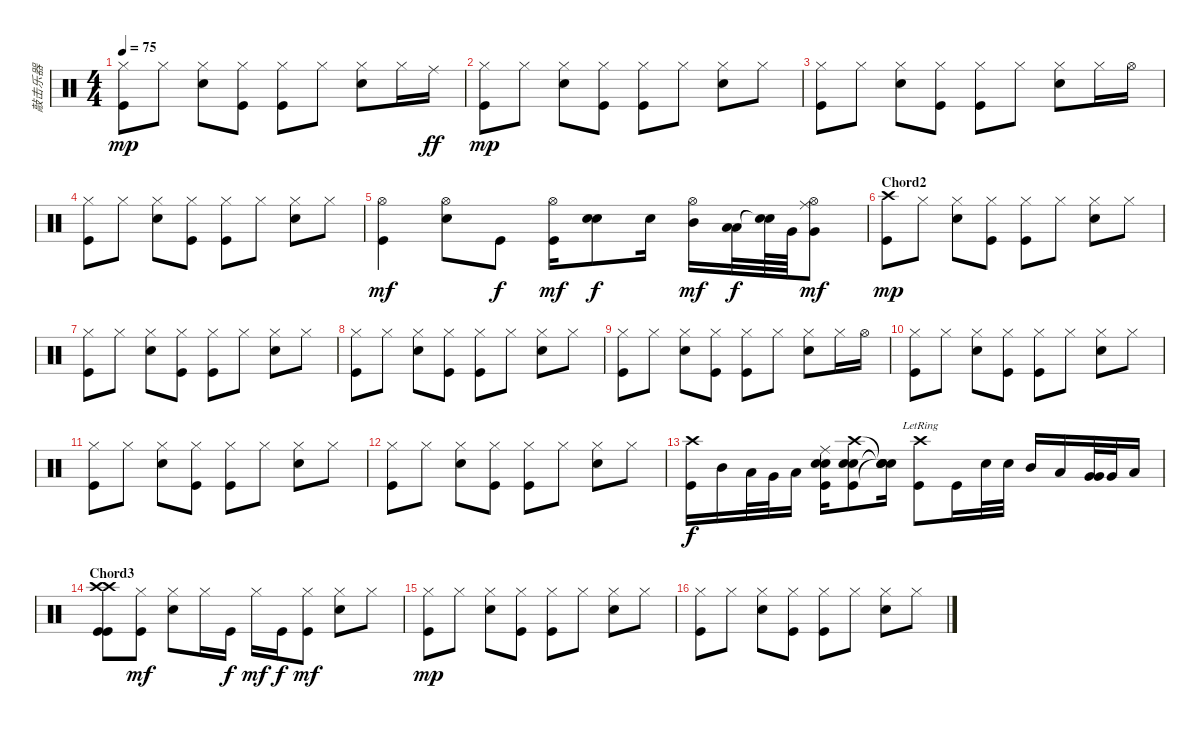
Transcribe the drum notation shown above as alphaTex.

\track ("敲击乐器" "敲击乐器") {instrument percussion}
\staff {score}
\articulation defaults
\ts (4 4)
\tempo 75
\clef neutral
\ks c
("Kick (hit)" "Hi-Hat (closed)").8{dy mp} "Hi-Hat (closed)".8 ("Electric Snare (hit)" "Hi-Hat (closed)").8 ("Kick (hit)" "Hi-Hat (closed)").8 ("Kick (hit)" "Hi-Hat (closed)").8 "Hi-Hat (closed)".8 ("Electric Snare (hit)" "Hi-Hat (closed)").8 "Hi-Hat (closed)".16 "Ride (middle)".16{dy ff} |
("Kick (hit)" "Hi-Hat (closed)").8{dy mp} "Hi-Hat (closed)".8 ("Electric Snare (hit)" "Hi-Hat (closed)").8 ("Kick (hit)" "Hi-Hat (closed)").8 ("Kick (hit)" "Hi-Hat (closed)").8 "Hi-Hat (closed)".8 ("Electric Snare (hit)" "Hi-Hat (closed)").8 "Hi-Hat (closed)".8 |
("Kick (hit)" "Hi-Hat (closed)").8 "Hi-Hat (closed)".8 ("Electric Snare (hit)" "Hi-Hat (closed)").8 ("Kick (hit)" "Hi-Hat (closed)").8 ("Kick (hit)" "Hi-Hat (closed)").8 "Hi-Hat (closed)".8 ("Electric Snare (hit)" "Hi-Hat (closed)").8 "Hi-Hat (closed)".16 "Hi-Hat (open)".16 |
("Kick (hit)" "Hi-Hat (closed)").8 "Hi-Hat (closed)".8 ("Electric Snare (hit)" "Hi-Hat (closed)").8 ("Kick (hit)" "Hi-Hat (closed)").8 ("Kick (hit)" "Hi-Hat (closed)").8 "Hi-Hat (closed)".8 ("Electric Snare (hit)" "Hi-Hat (closed)").8 "Hi-Hat (closed)".8 |
("Kick (hit)" "Hi-Hat (open)").4{dy mf} ("Electric Snare (hit)" "Hi-Hat (open)").8 "Kick (hit)".8{dy f} ("Kick (hit)" "Hi-Hat (open)").16{dy mf} ("Electric Snare (hit)" "Electric Snare (hit)").8{dy f} "Electric Snare (hit)".16 ("Mid Tom (hit)" "Hi-Hat (open)").16{dy mf} ("Low Tom (hit)" "Low Tom (hit)").32{dy f} ("Snare (hit)"{t} "Snare (hit)"{t}).64 "Very Low Tom (hit)".64 ("Very Low Tom (hit)" "Ride (middle)" "Hi-Hat (open)").8{dy mf} |
\section ("" "Chord2")
("Kick (hit)" "Crash high (hit)").8{dy mp} "Hi-Hat (closed)".8 ("Electric Snare (hit)" "Hi-Hat (closed)").8 ("Kick (hit)" "Hi-Hat (closed)").8 ("Kick (hit)" "Hi-Hat (closed)").8 "Hi-Hat (closed)".8 ("Electric Snare (hit)" "Hi-Hat (closed)").8 "Hi-Hat (closed)".8 |
("Kick (hit)" "Hi-Hat (closed)").8 "Hi-Hat (closed)".8 ("Electric Snare (hit)" "Hi-Hat (closed)").8 ("Kick (hit)" "Hi-Hat (closed)").8 ("Kick (hit)" "Hi-Hat (closed)").8 "Hi-Hat (closed)".8 ("Electric Snare (hit)" "Hi-Hat (closed)").8 "Hi-Hat (closed)".8 |
("Kick (hit)" "Hi-Hat (closed)").8 "Hi-Hat (closed)".8 ("Electric Snare (hit)" "Hi-Hat (closed)").8 ("Kick (hit)" "Hi-Hat (closed)").8 ("Kick (hit)" "Hi-Hat (closed)").8 "Hi-Hat (closed)".8 ("Electric Snare (hit)" "Hi-Hat (closed)").8 "Hi-Hat (closed)".8 |
("Kick (hit)" "Hi-Hat (closed)").8 "Hi-Hat (closed)".8 ("Electric Snare (hit)" "Hi-Hat (closed)").8 ("Kick (hit)" "Hi-Hat (closed)").8 ("Kick (hit)" "Hi-Hat (closed)").8 "Hi-Hat (closed)".8 ("Electric Snare (hit)" "Hi-Hat (closed)").8 "Hi-Hat (closed)".16 "Hi-Hat (open)".16 |
("Kick (hit)" "Hi-Hat (closed)").8 "Hi-Hat (closed)".8 ("Electric Snare (hit)" "Hi-Hat (closed)").8 ("Kick (hit)" "Hi-Hat (closed)").8 ("Kick (hit)" "Hi-Hat (closed)").8 "Hi-Hat (closed)".8 ("Electric Snare (hit)" "Hi-Hat (closed)").8 "Hi-Hat (closed)".8 |
("Kick (hit)" "Hi-Hat (closed)").8 "Hi-Hat (closed)".8 ("Electric Snare (hit)" "Hi-Hat (closed)").8 ("Kick (hit)" "Hi-Hat (closed)").8 ("Kick (hit)" "Hi-Hat (closed)").8 "Hi-Hat (closed)".8 ("Electric Snare (hit)" "Hi-Hat (closed)").8 "Hi-Hat (closed)".8 |
("Kick (hit)" "Hi-Hat (closed)").8 "Hi-Hat (closed)".8 ("Electric Snare (hit)" "Hi-Hat (closed)").8 ("Kick (hit)" "Hi-Hat (closed)").8 ("Kick (hit)" "Hi-Hat (closed)").8 "Hi-Hat (closed)".8 ("Electric Snare (hit)" "Hi-Hat (closed)").8 "Hi-Hat (closed)".8 |
("Kick (hit)" "Crash high (hit)").16{dy f} "Mid Tom (hit)".16 "Low Tom (hit)".32 "Very Low Tom (hit)".32 "Low Floor Tom (hit)".16 ("Snare (hit) 2" "Electric Snare (hit)" "Kick (hit)" "Ride (middle)").16 ("Snare (hit) 2" "Kick (hit)" "Crash high (hit)" "Electric Snare (hit)").8 ("Snare (hit)"{t} "Snare (hit)"{t} "Snare (hit)"{t} "Snare (hit)"{t}).16 ("Kick (hit)" "Crash high (hit)"{lr}).8 "Kick (hit)".16 "Snare (hit) 2".32 "Snare (hit) 2".32 "Mid Tom (hit)".16 "Low Tom (hit)".16 ("Very Low Tom (hit)" "Very Low Tom (hit)").32 "Very Low Tom (hit)".32 "Low Floor Tom (hit)".16 |
\section ("" "Chord3")
("Crash high (hit)" "Kick (hit)" "Crash high (hit)" "Kick (hit)").8 ("Kick (hit)" "Hi-Hat (closed)").8{dy mf} ("Electric Snare (hit)" "Hi-Hat (closed)").8 "Hi-Hat (closed)".16 "Kick (hit)".16{dy f} "Hi-Hat (closed)".16{dy mf} "Kick (hit)".16{dy f} ("Kick (hit)" "Hi-Hat (closed)").8{dy mf} ("Electric Snare (hit)" "Hi-Hat (closed)").8 "Hi-Hat (closed)".8 |
("Kick (hit)" "Hi-Hat (closed)").8{dy mp} "Hi-Hat (closed)".8 ("Electric Snare (hit)" "Hi-Hat (closed)").8 ("Kick (hit)" "Hi-Hat (closed)").8 ("Kick (hit)" "Hi-Hat (closed)").8 "Hi-Hat (closed)".8 ("Electric Snare (hit)" "Hi-Hat (closed)").8 "Hi-Hat (closed)".8 |
("Kick (hit)" "Hi-Hat (closed)").8 "Hi-Hat (closed)".8 ("Electric Snare (hit)" "Hi-Hat (closed)").8 ("Kick (hit)" "Hi-Hat (closed)").8 ("Kick (hit)" "Hi-Hat (closed)").8 "Hi-Hat (closed)".8 ("Electric Snare (hit)" "Hi-Hat (closed)").8 "Hi-Hat (closed)".8
